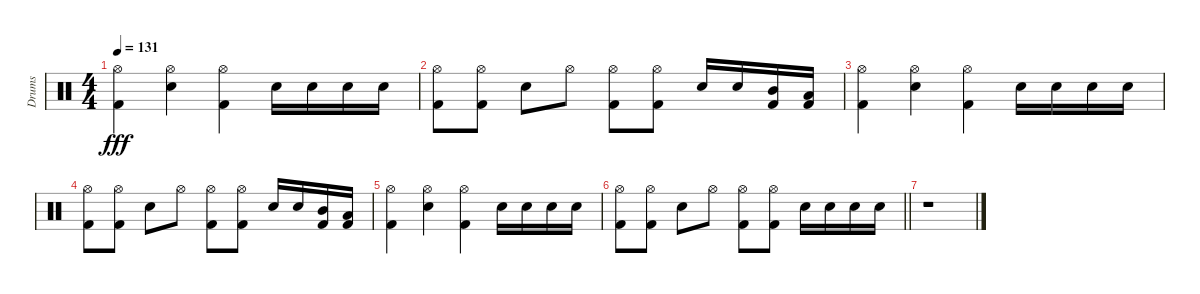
\track ("Drums" "Drums") {instrument percussion}
\staff {score}
\articulation defaults
\ts (4 4)
\tempo 131
\clef neutral
\ks c
("Hi-Hat (open)" "Kick (hit) 2").4{dy fff} ("Hi-Hat (open)" "Electric Snare (hit)").4 ("Hi-Hat (open)" "Kick (hit) 2").4 "Electric Snare (hit)".16 "Electric Snare (hit)".16 "Electric Snare (hit)".16 "Electric Snare (hit)".16 |
("Hi-Hat (open)" "Kick (hit) 2").8 ("Hi-Hat (open)" "Kick (hit) 2").8 "Electric Snare (hit)".8 "Hi-Hat (open)".8 ("Hi-Hat (open)" "Kick (hit) 2").8 ("Hi-Hat (open)" "Kick (hit) 2").8 "Electric Snare (hit)".16 "Electric Snare (hit)".16 ("Mid Tom (hit)" "Kick (hit) 2").16 ("Low Tom (hit)" "Kick (hit) 2").16 |
("Hi-Hat (open)" "Kick (hit) 2").4 ("Hi-Hat (open)" "Electric Snare (hit)").4 ("Hi-Hat (open)" "Kick (hit) 2").4 "Electric Snare (hit)".16 "Electric Snare (hit)".16 "Electric Snare (hit)".16 "Electric Snare (hit)".16 |
("Hi-Hat (open)" "Kick (hit) 2").8 ("Hi-Hat (open)" "Kick (hit) 2").8 "Electric Snare (hit)".8 "Hi-Hat (open)".8 ("Hi-Hat (open)" "Kick (hit) 2").8 ("Hi-Hat (open)" "Kick (hit) 2").8 "Electric Snare (hit)".16 "Electric Snare (hit)".16 ("Mid Tom (hit)" "Kick (hit) 2").16 ("Low Tom (hit)" "Kick (hit) 2").16 |
("Hi-Hat (open)" "Kick (hit) 2").4 ("Hi-Hat (open)" "Electric Snare (hit)").4 ("Hi-Hat (open)" "Kick (hit) 2").4 "Electric Snare (hit)".16 "Electric Snare (hit)".16 "Electric Snare (hit)".16 "Electric Snare (hit)".16 |
\barLineRight lightlight
("Hi-Hat (open)" "Kick (hit) 2").8 ("Hi-Hat (open)" "Kick (hit) 2").8 "Electric Snare (hit)".8 "Hi-Hat (open)".8 ("Hi-Hat (open)" "Kick (hit) 2").8 ("Hi-Hat (open)" "Kick (hit) 2").8 "Electric Snare (hit)".16 "Electric Snare (hit)".16 "Electric Snare (hit)".16 "Electric Snare (hit)".16 |
r.1
